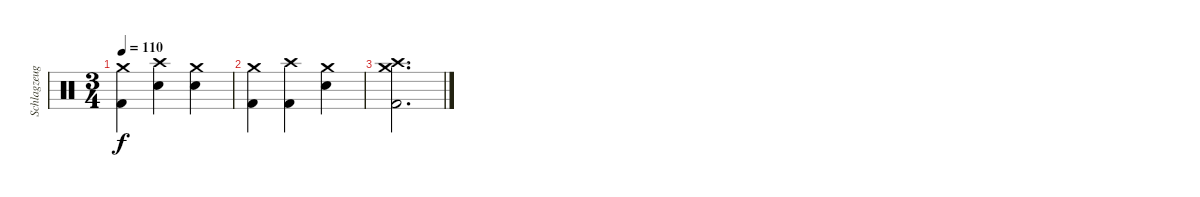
\track ("Schlagzeug" "Schlagzeug") {instrument percussion}
\staff {score}
\articulation defaults
\ts (3 4)
\tempo 110
\clef neutral
\ks c
("Crash medium (hit)" "Kick (hit) 2").4{dy f} ("Crash high (hit)" "Snare (hit) 2").4 ("Crash medium (hit)" "Snare (hit) 2").4 |
("Crash medium (hit)" "Kick (hit) 2").4 ("Crash high (hit)" "Kick (hit) 2").4 ("Crash medium (hit)" "Snare (hit) 2").4 |
("Crash medium (hit)" "Crash high (hit)" "Kick (hit) 2").2{d}
